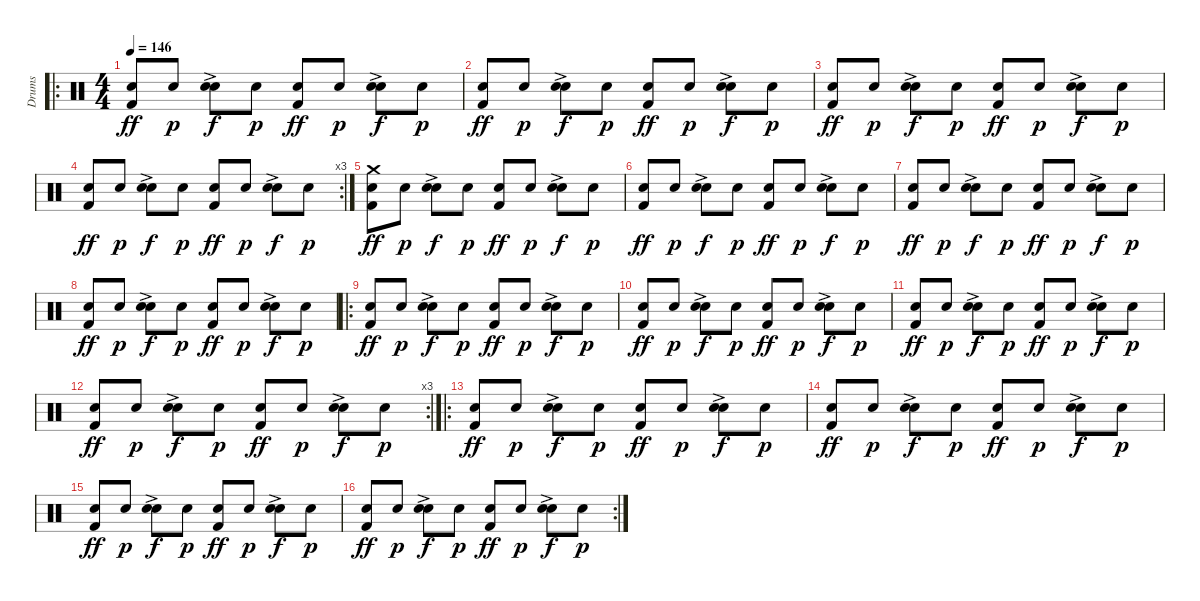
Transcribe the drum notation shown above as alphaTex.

\track ("Drums" "Drums") {instrument percussion}
\staff {score}
\articulation defaults
\ro
\ts (4 4)
\tempo 146
\clef neutral
\ks c
("Electric Snare (hit)" "Kick (hit) 2").8{dy ff} "Electric Snare (hit)".8{dy p} ("Electric Snare (hit)" "Electric Snare (hit)"{ac}).8{dy f} "Electric Snare (hit)".8{dy p} ("Electric Snare (hit)" "Kick (hit) 2").8{dy ff} "Electric Snare (hit)".8{dy p} ("Electric Snare (hit)" "Electric Snare (hit)"{ac}).8{dy f} "Electric Snare (hit)".8{dy p} |
("Electric Snare (hit)" "Kick (hit) 2").8{dy ff} "Electric Snare (hit)".8{dy p} ("Electric Snare (hit)" "Electric Snare (hit)"{ac}).8{dy f} "Electric Snare (hit)".8{dy p} ("Electric Snare (hit)" "Kick (hit) 2").8{dy ff} "Electric Snare (hit)".8{dy p} ("Electric Snare (hit)" "Electric Snare (hit)"{ac}).8{dy f} "Electric Snare (hit)".8{dy p} |
("Electric Snare (hit)" "Kick (hit) 2").8{dy ff} "Electric Snare (hit)".8{dy p} ("Electric Snare (hit)" "Electric Snare (hit)"{ac}).8{dy f} "Electric Snare (hit)".8{dy p} ("Electric Snare (hit)" "Kick (hit) 2").8{dy ff} "Electric Snare (hit)".8{dy p} ("Electric Snare (hit)" "Electric Snare (hit)"{ac}).8{dy f} "Electric Snare (hit)".8{dy p} |
\rc 3
("Electric Snare (hit)" "Kick (hit) 2").8{dy ff} "Electric Snare (hit)".8{dy p} ("Electric Snare (hit)" "Electric Snare (hit)"{ac}).8{dy f} "Electric Snare (hit)".8{dy p} ("Electric Snare (hit)" "Kick (hit) 2").8{dy ff} "Electric Snare (hit)".8{dy p} ("Electric Snare (hit)" "Electric Snare (hit)"{ac}).8{dy f} "Electric Snare (hit)".8{dy p} |
("Crash medium (hit)" "Electric Snare (hit)" "Kick (hit) 2").8{dy ff} "Electric Snare (hit)".8{dy p} ("Electric Snare (hit)" "Electric Snare (hit)"{ac}).8{dy f} "Electric Snare (hit)".8{dy p} ("Electric Snare (hit)" "Kick (hit) 2").8{dy ff} "Electric Snare (hit)".8{dy p} ("Electric Snare (hit)" "Electric Snare (hit)"{ac}).8{dy f} "Electric Snare (hit)".8{dy p} |
("Electric Snare (hit)" "Kick (hit) 2").8{dy ff} "Electric Snare (hit)".8{dy p} ("Electric Snare (hit)" "Electric Snare (hit)"{ac}).8{dy f} "Electric Snare (hit)".8{dy p} ("Electric Snare (hit)" "Kick (hit) 2").8{dy ff} "Electric Snare (hit)".8{dy p} ("Electric Snare (hit)" "Electric Snare (hit)"{ac}).8{dy f} "Electric Snare (hit)".8{dy p} |
("Electric Snare (hit)" "Kick (hit) 2").8{dy ff} "Electric Snare (hit)".8{dy p} ("Electric Snare (hit)" "Electric Snare (hit)"{ac}).8{dy f} "Electric Snare (hit)".8{dy p} ("Electric Snare (hit)" "Kick (hit) 2").8{dy ff} "Electric Snare (hit)".8{dy p} ("Electric Snare (hit)" "Electric Snare (hit)"{ac}).8{dy f} "Electric Snare (hit)".8{dy p} |
("Electric Snare (hit)" "Kick (hit) 2").8{dy ff} "Electric Snare (hit)".8{dy p} ("Electric Snare (hit)" "Electric Snare (hit)"{ac}).8{dy f} "Electric Snare (hit)".8{dy p} ("Electric Snare (hit)" "Kick (hit) 2").8{dy ff} "Electric Snare (hit)".8{dy p} ("Electric Snare (hit)" "Electric Snare (hit)"{ac}).8{dy f} "Electric Snare (hit)".8{dy p} |
\ro
("Electric Snare (hit)" "Kick (hit) 2").8{dy ff} "Electric Snare (hit)".8{dy p} ("Electric Snare (hit)" "Electric Snare (hit)"{ac}).8{dy f} "Electric Snare (hit)".8{dy p} ("Electric Snare (hit)" "Kick (hit) 2").8{dy ff} "Electric Snare (hit)".8{dy p} ("Electric Snare (hit)" "Electric Snare (hit)"{ac}).8{dy f} "Electric Snare (hit)".8{dy p} |
("Electric Snare (hit)" "Kick (hit) 2").8{dy ff} "Electric Snare (hit)".8{dy p} ("Electric Snare (hit)" "Electric Snare (hit)"{ac}).8{dy f} "Electric Snare (hit)".8{dy p} ("Electric Snare (hit)" "Kick (hit) 2").8{dy ff} "Electric Snare (hit)".8{dy p} ("Electric Snare (hit)" "Electric Snare (hit)"{ac}).8{dy f} "Electric Snare (hit)".8{dy p} |
("Electric Snare (hit)" "Kick (hit) 2").8{dy ff} "Electric Snare (hit)".8{dy p} ("Electric Snare (hit)" "Electric Snare (hit)"{ac}).8{dy f} "Electric Snare (hit)".8{dy p} ("Electric Snare (hit)" "Kick (hit) 2").8{dy ff} "Electric Snare (hit)".8{dy p} ("Electric Snare (hit)" "Electric Snare (hit)"{ac}).8{dy f} "Electric Snare (hit)".8{dy p} |
\rc 3
("Electric Snare (hit)" "Kick (hit) 2").8{dy ff} "Electric Snare (hit)".8{dy p} ("Electric Snare (hit)" "Electric Snare (hit)"{ac}).8{dy f} "Electric Snare (hit)".8{dy p} ("Electric Snare (hit)" "Kick (hit) 2").8{dy ff} "Electric Snare (hit)".8{dy p} ("Electric Snare (hit)" "Electric Snare (hit)"{ac}).8{dy f} "Electric Snare (hit)".8{dy p} |
\ro
("Electric Snare (hit)" "Kick (hit) 2").8{dy ff} "Electric Snare (hit)".8{dy p} ("Electric Snare (hit)" "Electric Snare (hit)"{ac}).8{dy f} "Electric Snare (hit)".8{dy p} ("Electric Snare (hit)" "Kick (hit) 2").8{dy ff} "Electric Snare (hit)".8{dy p} ("Electric Snare (hit)" "Electric Snare (hit)"{ac}).8{dy f} "Electric Snare (hit)".8{dy p} |
("Electric Snare (hit)" "Kick (hit) 2").8{dy ff} "Electric Snare (hit)".8{dy p} ("Electric Snare (hit)" "Electric Snare (hit)"{ac}).8{dy f} "Electric Snare (hit)".8{dy p} ("Electric Snare (hit)" "Kick (hit) 2").8{dy ff} "Electric Snare (hit)".8{dy p} ("Electric Snare (hit)" "Electric Snare (hit)"{ac}).8{dy f} "Electric Snare (hit)".8{dy p} |
("Electric Snare (hit)" "Kick (hit) 2").8{dy ff} "Electric Snare (hit)".8{dy p} ("Electric Snare (hit)" "Electric Snare (hit)"{ac}).8{dy f} "Electric Snare (hit)".8{dy p} ("Electric Snare (hit)" "Kick (hit) 2").8{dy ff} "Electric Snare (hit)".8{dy p} ("Electric Snare (hit)" "Electric Snare (hit)"{ac}).8{dy f} "Electric Snare (hit)".8{dy p} |
\rc 2
("Electric Snare (hit)" "Kick (hit) 2").8{dy ff} "Electric Snare (hit)".8{dy p} ("Electric Snare (hit)" "Electric Snare (hit)"{ac}).8{dy f} "Electric Snare (hit)".8{dy p} ("Electric Snare (hit)" "Kick (hit) 2").8{dy ff} "Electric Snare (hit)".8{dy p} ("Electric Snare (hit)" "Electric Snare (hit)"{ac}).8{dy f} "Electric Snare (hit)".8{dy p}
